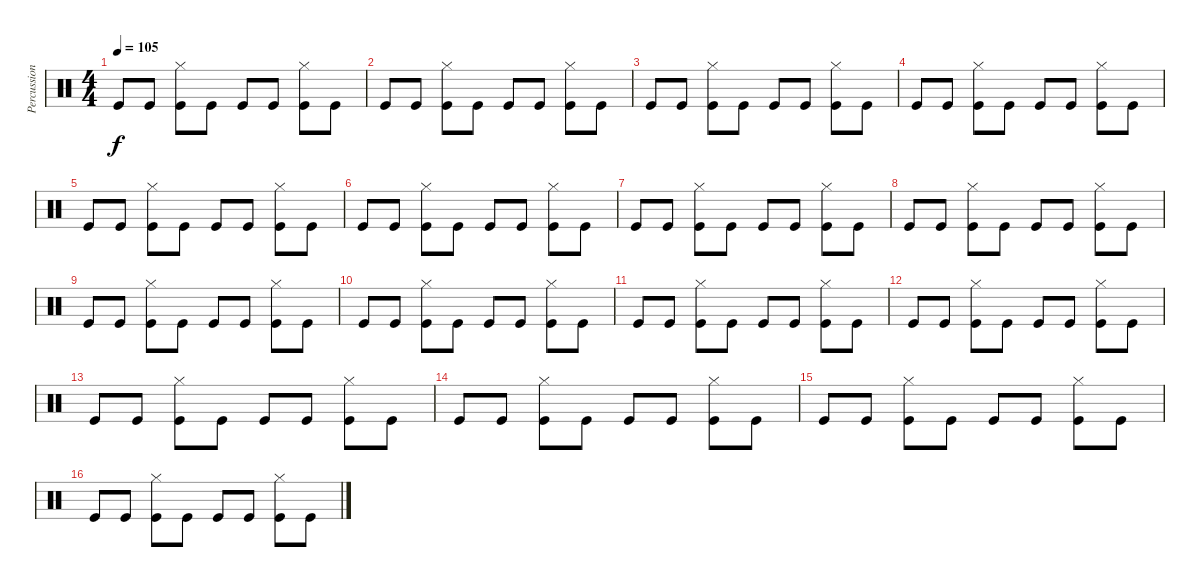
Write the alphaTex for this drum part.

\track ("Percussion" "Percussion") {instrument percussion}
\staff {score}
\articulation defaults
\ts (4 4)
\tempo 105
\clef neutral
\ks c "Kick (hit)".8{dy f} "Kick (hit)".8
("Hi-Hat (closed)" "Kick (hit)").8 "Kick (hit)".8 "Kick (hit)".8 "Kick (hit)".8 ("Hi-Hat (closed)" "Kick (hit)").8 "Kick (hit)".8 |
"Kick (hit)".8 "Kick (hit)".8 ("Hi-Hat (closed)" "Kick (hit)").8 "Kick (hit)".8 "Kick (hit)".8 "Kick (hit)".8 ("Hi-Hat (closed)" "Kick (hit)").8 "Kick (hit)".8 |
"Kick (hit)".8 "Kick (hit)".8 ("Hi-Hat (closed)" "Kick (hit)").8 "Kick (hit)".8 "Kick (hit)".8 "Kick (hit)".8 ("Hi-Hat (closed)" "Kick (hit)").8 "Kick (hit)".8 |
"Kick (hit)".8 "Kick (hit)".8 ("Hi-Hat (closed)" "Kick (hit)").8 "Kick (hit)".8 "Kick (hit)".8 "Kick (hit)".8 ("Hi-Hat (closed)" "Kick (hit)").8 "Kick (hit)".8 |
"Kick (hit)".8 "Kick (hit)".8 ("Hi-Hat (closed)" "Kick (hit)").8 "Kick (hit)".8 "Kick (hit)".8 "Kick (hit)".8 ("Hi-Hat (closed)" "Kick (hit)").8 "Kick (hit)".8 |
"Kick (hit)".8 "Kick (hit)".8 ("Hi-Hat (closed)" "Kick (hit)").8 "Kick (hit)".8 "Kick (hit)".8 "Kick (hit)".8 ("Hi-Hat (closed)" "Kick (hit)").8 "Kick (hit)".8 |
"Kick (hit)".8 "Kick (hit)".8 ("Hi-Hat (closed)" "Kick (hit)").8 "Kick (hit)".8 "Kick (hit)".8 "Kick (hit)".8 ("Hi-Hat (closed)" "Kick (hit)").8 "Kick (hit)".8 |
"Kick (hit)".8 "Kick (hit)".8 ("Hi-Hat (closed)" "Kick (hit)").8 "Kick (hit)".8 "Kick (hit)".8 "Kick (hit)".8 ("Hi-Hat (closed)" "Kick (hit)").8 "Kick (hit)".8 |
"Kick (hit)".8 "Kick (hit)".8 ("Hi-Hat (closed)" "Kick (hit)").8 "Kick (hit)".8 "Kick (hit)".8 "Kick (hit)".8 ("Hi-Hat (closed)" "Kick (hit)").8 "Kick (hit)".8 |
"Kick (hit)".8 "Kick (hit)".8 ("Hi-Hat (closed)" "Kick (hit)").8 "Kick (hit)".8 "Kick (hit)".8 "Kick (hit)".8 ("Hi-Hat (closed)" "Kick (hit)").8 "Kick (hit)".8 |
"Kick (hit)".8 "Kick (hit)".8 ("Hi-Hat (closed)" "Kick (hit)").8 "Kick (hit)".8 "Kick (hit)".8 "Kick (hit)".8 ("Hi-Hat (closed)" "Kick (hit)").8 "Kick (hit)".8 |
"Kick (hit)".8 "Kick (hit)".8 ("Hi-Hat (closed)" "Kick (hit)").8 "Kick (hit)".8 "Kick (hit)".8 "Kick (hit)".8 ("Hi-Hat (closed)" "Kick (hit)").8 "Kick (hit)".8 |
"Kick (hit)".8 "Kick (hit)".8 ("Hi-Hat (closed)" "Kick (hit)").8 "Kick (hit)".8 "Kick (hit)".8 "Kick (hit)".8 ("Hi-Hat (closed)" "Kick (hit)").8 "Kick (hit)".8 |
"Kick (hit)".8 "Kick (hit)".8 ("Hi-Hat (closed)" "Kick (hit)").8 "Kick (hit)".8 "Kick (hit)".8 "Kick (hit)".8 ("Hi-Hat (closed)" "Kick (hit)").8 "Kick (hit)".8 |
"Kick (hit)".8 "Kick (hit)".8 ("Hi-Hat (closed)" "Kick (hit)").8 "Kick (hit)".8 "Kick (hit)".8 "Kick (hit)".8 ("Hi-Hat (closed)" "Kick (hit)").8 "Kick (hit)".8 |
"Kick (hit)".8 "Kick (hit)".8 ("Hi-Hat (closed)" "Kick (hit)").8 "Kick (hit)".8 "Kick (hit)".8 "Kick (hit)".8 ("Hi-Hat (closed)" "Kick (hit)").8 "Kick (hit)".8
